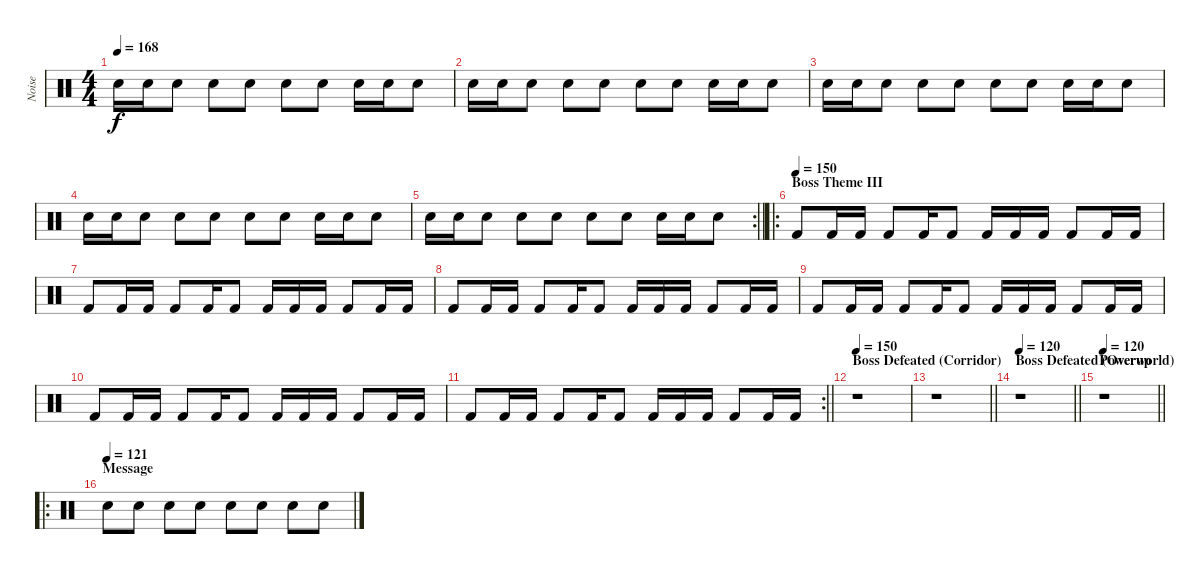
\track ("Noise" "Noise") {instrument percussion}
\staff {score}
\articulation defaults
\ts (4 4)
\tempo 168
\clef neutral
\ks c "Snare (hit) 2".16{dy f} "Snare (hit) 2".16 "Snare (hit) 2".8 "Snare (hit) 2".8 "Snare (hit) 2".8 "Snare (hit) 2".8 "Snare (hit) 2".8 "Snare (hit) 2".16 "Snare (hit) 2".16 "Snare (hit) 2".8
|
"Snare (hit) 2".16 "Snare (hit) 2".16 "Snare (hit) 2".8 "Snare (hit) 2".8 "Snare (hit) 2".8 "Snare (hit) 2".8 "Snare (hit) 2".8 "Snare (hit) 2".16 "Snare (hit) 2".16 "Snare (hit) 2".8 |
"Snare (hit) 2".16 "Snare (hit) 2".16 "Snare (hit) 2".8 "Snare (hit) 2".8 "Snare (hit) 2".8 "Snare (hit) 2".8 "Snare (hit) 2".8 "Snare (hit) 2".16 "Snare (hit) 2".16 "Snare (hit) 2".8 |
"Snare (hit) 2".16 "Snare (hit) 2".16 "Snare (hit) 2".8 "Snare (hit) 2".8 "Snare (hit) 2".8 "Snare (hit) 2".8 "Snare (hit) 2".8 "Snare (hit) 2".16 "Snare (hit) 2".16 "Snare (hit) 2".8 |
\rc 2
\barLineRight lightlight "Snare (hit) 2".16 "Snare (hit) 2".16 "Snare (hit) 2".8 "Snare (hit) 2".8 "Snare (hit) 2".8 "Snare (hit) 2".8 "Snare (hit) 2".8 "Snare (hit) 2".16 "Snare (hit) 2".16 "Snare (hit) 2".8
|
\ro
\section ("" "Boss Theme III")
\tempo (150)
"Kick (hit) 2".8{volume 13} "Kick (hit) 2".16 "Kick (hit) 2".16 "Kick (hit) 2".8 "Kick (hit) 2".16 "Kick (hit) 2".8 "Kick (hit) 2".16 "Kick (hit) 2".16 "Kick (hit) 2".16 "Kick (hit) 2".8 "Kick (hit) 2".16 "Kick (hit) 2".16 |
"Kick (hit) 2".8 "Kick (hit) 2".16 "Kick (hit) 2".16 "Kick (hit) 2".8 "Kick (hit) 2".16 "Kick (hit) 2".8 "Kick (hit) 2".16 "Kick (hit) 2".16 "Kick (hit) 2".16 "Kick (hit) 2".8 "Kick (hit) 2".16 "Kick (hit) 2".16 |
"Kick (hit) 2".8 "Kick (hit) 2".16 "Kick (hit) 2".16 "Kick (hit) 2".8 "Kick (hit) 2".16 "Kick (hit) 2".8 "Kick (hit) 2".16 "Kick (hit) 2".16 "Kick (hit) 2".16 "Kick (hit) 2".8 "Kick (hit) 2".16 "Kick (hit) 2".16 |
"Kick (hit) 2".8 "Kick (hit) 2".16 "Kick (hit) 2".16 "Kick (hit) 2".8 "Kick (hit) 2".16 "Kick (hit) 2".8 "Kick (hit) 2".16 "Kick (hit) 2".16 "Kick (hit) 2".16 "Kick (hit) 2".8 "Kick (hit) 2".16 "Kick (hit) 2".16 |
"Kick (hit) 2".8 "Kick (hit) 2".16 "Kick (hit) 2".16 "Kick (hit) 2".8 "Kick (hit) 2".16 "Kick (hit) 2".8 "Kick (hit) 2".16 "Kick (hit) 2".16 "Kick (hit) 2".16 "Kick (hit) 2".8 "Kick (hit) 2".16 "Kick (hit) 2".16 |
\rc 2
\barLineRight lightlight "Kick (hit) 2".8 "Kick (hit) 2".16 "Kick (hit) 2".16 "Kick (hit) 2".8 "Kick (hit) 2".16 "Kick (hit) 2".8 "Kick (hit) 2".16 "Kick (hit) 2".16 "Kick (hit) 2".16 "Kick (hit) 2".8 "Kick (hit) 2".16 "Kick (hit) 2".16
|
\section ("" "Boss Defeated (Corridor)")
\tempo 150
r.1{volume 13} |
\barLineRight lightlight
r.1 |
\section ("" "Boss Defeated (Overworld)")
\tempo 120
\barLineRight lightlight
r.1{volume 13} |
\section ("" "Powerup")
\tempo 120
\barLineRight lightlight
r.1{volume 13} |
\ro
\section ("" "Message")
\tempo (121)
"Snare (hit) 2".8{volume 9} "Snare (hit) 2".8 "Snare (hit) 2".8 "Snare (hit) 2".8 "Snare (hit) 2".8 "Snare (hit) 2".8 "Snare (hit) 2".8 "Snare (hit) 2".8
